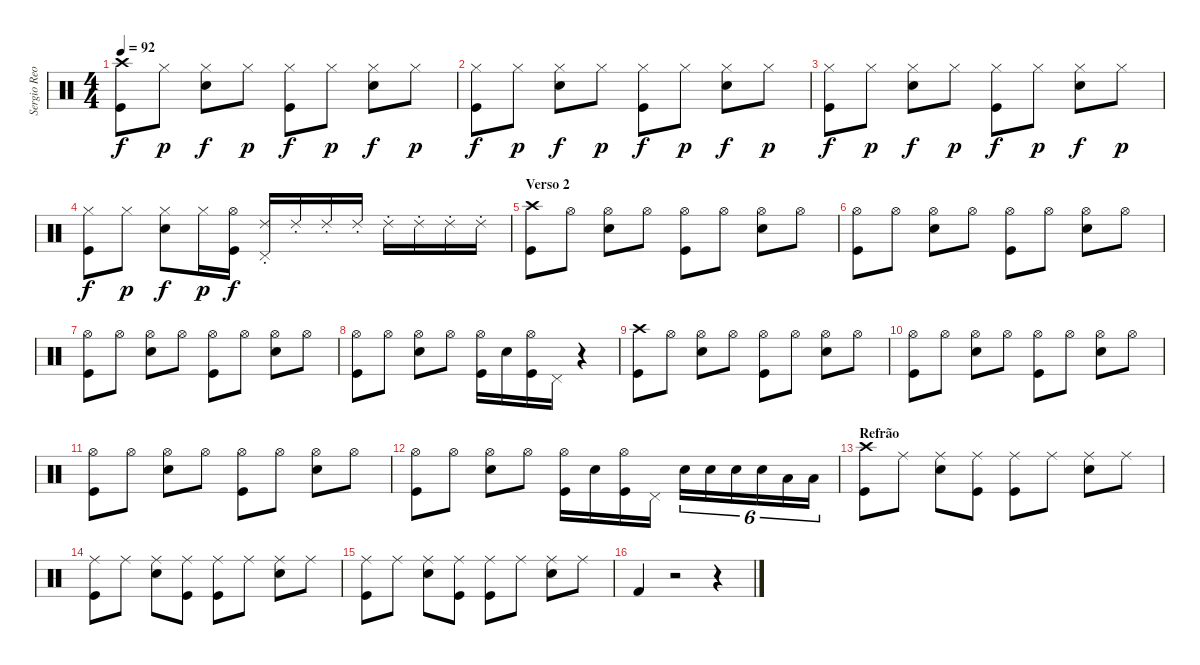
\track ("Sergio Reoli" "Sergio Reo") {instrument percussion}
\staff {score}
\articulation defaults
\ts (4 4)
\tempo 92
\clef neutral
\ks c
("Crash high (hit)" "Kick (hit)").8{dy f} "Hi-Hat (closed)".8{dy p} ("Hi-Hat (closed)" "Electric Snare (hit)").8{dy f} "Hi-Hat (closed)".8{dy p} ("Hi-Hat (closed)" "Kick (hit)").8{dy f} "Hi-Hat (closed)".8{dy p} ("Hi-Hat (closed)" "Electric Snare (hit)").8{dy f} "Hi-Hat (closed)".8{dy p} |
("Hi-Hat (closed)" "Kick (hit)").8{dy f} "Hi-Hat (closed)".8{dy p} ("Hi-Hat (closed)" "Electric Snare (hit)").8{dy f} "Hi-Hat (closed)".8{dy p} ("Hi-Hat (closed)" "Kick (hit)").8{dy f} "Hi-Hat (closed)".8{dy p} ("Hi-Hat (closed)" "Electric Snare (hit)").8{dy f} "Hi-Hat (closed)".8{dy p} |
("Hi-Hat (closed)" "Kick (hit)").8{dy f} "Hi-Hat (closed)".8{dy p} ("Hi-Hat (closed)" "Electric Snare (hit)").8{dy f} "Hi-Hat (closed)".8{dy p} ("Hi-Hat (closed)" "Kick (hit)").8{dy f} "Hi-Hat (closed)".8{dy p} ("Hi-Hat (closed)" "Electric Snare (hit)").8{dy f} "Hi-Hat (closed)".8{dy p} |
("Hi-Hat (closed)" "Kick (hit)").8{dy f} "Hi-Hat (closed)".8{dy p} ("Hi-Hat (closed)" "Electric Snare (hit)").8{dy f} "Hi-Hat (closed)".16{dy p} ("Hi-Hat (open)" "Kick (hit)").16{dy f} ("Ride (choke) 2" "Pedal Hi-Hat (hit)").16 "Ride (choke) 2".16 "Ride (choke) 2".16 "Ride (choke) 2".16 "Ride (choke) 2".16 "Ride (choke) 2".16 "Ride (choke) 2".16 "Ride (choke) 2".16 |
\section ("" "Verso 2")
("Crash high (hit)" "Kick (hit)").8 "Hi-Hat (open)".8 ("Hi-Hat (open)" "Electric Snare (hit)").8 "Hi-Hat (open)".8 ("Hi-Hat (open)" "Kick (hit)").8 "Hi-Hat (open)".8 ("Hi-Hat (open)" "Electric Snare (hit)").8 "Hi-Hat (open)".8 |
("Hi-Hat (open)" "Kick (hit)").8 "Hi-Hat (open)".8 ("Hi-Hat (open)" "Electric Snare (hit)").8 "Hi-Hat (open)".8 ("Hi-Hat (open)" "Kick (hit)").8 "Hi-Hat (open)".8 ("Hi-Hat (open)" "Electric Snare (hit)").8 "Hi-Hat (open)".8 |
("Hi-Hat (open)" "Kick (hit)").8 "Hi-Hat (open)".8 ("Hi-Hat (open)" "Electric Snare (hit)").8 "Hi-Hat (open)".8 ("Hi-Hat (open)" "Kick (hit)").8 "Hi-Hat (open)".8 ("Hi-Hat (open)" "Electric Snare (hit)").8 "Hi-Hat (open)".8 |
("Hi-Hat (open)" "Kick (hit)").8 "Hi-Hat (open)".8 ("Hi-Hat (open)" "Electric Snare (hit)").8 "Hi-Hat (open)".8 ("Hi-Hat (open)" "Kick (hit)").16 "Electric Snare (hit)".16 ("Hi-Hat (open)" "Kick (hit)").16 "Pedal Hi-Hat (hit)".16 r.4 |
("Crash high (hit)" "Kick (hit)").8 "Hi-Hat (open)".8 ("Hi-Hat (open)" "Electric Snare (hit)").8 "Hi-Hat (open)".8 ("Hi-Hat (open)" "Kick (hit)").8 "Hi-Hat (open)".8 ("Hi-Hat (open)" "Electric Snare (hit)").8 "Hi-Hat (open)".8 |
("Hi-Hat (open)" "Kick (hit)").8 "Hi-Hat (open)".8 ("Hi-Hat (open)" "Electric Snare (hit)").8 "Hi-Hat (open)".8 ("Hi-Hat (open)" "Kick (hit)").8 "Hi-Hat (open)".8 ("Hi-Hat (open)" "Electric Snare (hit)").8 "Hi-Hat (open)".8 |
("Hi-Hat (open)" "Kick (hit)").8 "Hi-Hat (open)".8 ("Hi-Hat (open)" "Electric Snare (hit)").8 "Hi-Hat (open)".8 ("Hi-Hat (open)" "Kick (hit)").8 "Hi-Hat (open)".8 ("Hi-Hat (open)" "Electric Snare (hit)").8 "Hi-Hat (open)".8 |
("Hi-Hat (open)" "Kick (hit)").8 "Hi-Hat (open)".8 ("Hi-Hat (open)" "Electric Snare (hit)").8 "Hi-Hat (open)".8 ("Hi-Hat (open)" "Kick (hit)").16 "Electric Snare (hit)".16 ("Hi-Hat (open)" "Kick (hit)").16 "Pedal Hi-Hat (hit)".16 "Electric Snare (hit)".16{tu (6 4)} "Electric Snare (hit)".16{tu (6 4)} "Electric Snare (hit)".16{tu (6 4)} "Electric Snare (hit)".16{tu (6 4)} "Low Tom (hit)".16{tu (6 4)} "Low Tom (hit)".16{tu (6 4)} |
\section ("" "Refrão")
("Crash high (hit)" "Kick (hit)").8 "Ride (middle)".8 ("Ride (middle)" "Electric Snare (hit)").8 ("Ride (middle)" "Kick (hit)").8 ("Ride (middle)" "Kick (hit)").8 "Ride (middle)".8 ("Ride (middle)" "Electric Snare (hit)").8 "Ride (middle)".8 |
("Ride (middle)" "Kick (hit)").8 "Ride (middle)".8 ("Ride (middle)" "Electric Snare (hit)").8 ("Ride (middle)" "Kick (hit)").8 ("Ride (middle)" "Kick (hit)").8 "Ride (middle)".8 ("Ride (middle)" "Electric Snare (hit)").8 "Ride (middle)".8 |
("Ride (middle)" "Kick (hit)").8 "Ride (middle)".8 ("Ride (middle)" "Electric Snare (hit)").8 ("Ride (middle)" "Kick (hit)").8 ("Ride (middle)" "Kick (hit)").8 "Ride (middle)".8 ("Ride (middle)" "Electric Snare (hit)").8 "Ride (middle)".8 |
"Kick (hit) 2".4 r.2 r.4
